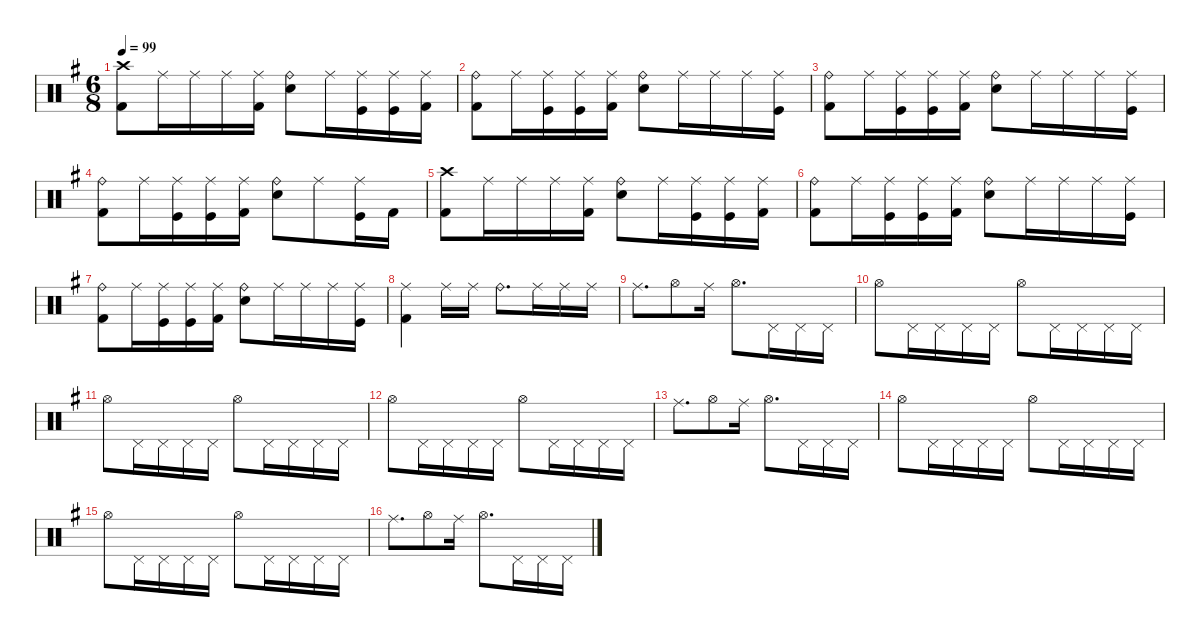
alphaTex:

\defaultSystemsLayout 4
\hideDynamics
\bracketExtendMode nobrackets
\singleTrackTrackNamePolicy hidden
\multiTrackTrackNamePolicy hidden
\otherSystemsTrackNameOrientation horizontal
\track ("Dave Abbruzzese" "drm.") {defaultSystemsLayout 4 instrument percussion}
\staff {score}
\articulation defaults
\ts (6 8)
\tempo 99
\clef neutral
\ks g
("Crash high (hit)"{acc forcenatural} "Kick (hit) 2"{acc forcenatural}).8{dy f beam Down} "Ride (middle)"{acc forcenatural}.16{dy p beam Down} "Ride (middle)"{acc forcenatural}.16{beam Down} "Ride (middle)"{acc forcenatural}.16{beam Down} ("Ride (middle)"{acc forcenatural} "Kick (hit) 2"{acc forcenatural}).16{beam Down} ("Ride (bell)"{acc forcenatural} "Snare (hit) 2"{acc forcenatural}).8{dy f beam Down} "Ride (middle)"{acc forcenatural}.16{dy p beam Down} ("Ride (middle)"{acc forcenatural} "Kick (hit)"{acc forcenatural}).16{beam Down} ("Ride (middle)"{acc forcenatural} "Kick (hit)"{acc forcenatural}).16{beam Down} ("Ride (middle)"{acc forcenatural} "Kick (hit) 2"{acc forcenatural}).16{beam Down} |
("Ride (bell)"{acc forcenatural} "Kick (hit) 2"{acc forcenatural}).8{dy f beam Down} "Ride (middle)"{acc forcenatural}.16{dy p beam Down} ("Ride (middle)"{acc forcenatural} "Kick (hit)"{acc forcenatural}).16{beam Down} ("Ride (middle)"{acc forcenatural} "Kick (hit)"{acc forcenatural}).16{beam Down} ("Ride (middle)"{acc forcenatural} "Kick (hit) 2"{acc forcenatural}).16{beam Down} ("Ride (bell)"{acc forcenatural} "Snare (hit) 2"{acc forcenatural}).8{dy f beam Down} "Ride (middle)"{acc forcenatural}.16{dy p beam Down} "Ride (middle)"{acc forcenatural}.16{beam Down} "Ride (middle)"{acc forcenatural}.16{beam Down} ("Ride (middle)"{acc forcenatural} "Kick (hit)"{acc forcenatural}).16{beam Down} |
("Ride (bell)"{acc forcenatural} "Kick (hit) 2"{acc forcenatural}).8{dy f beam Down} "Ride (middle)"{acc forcenatural}.16{dy p beam Down} ("Ride (middle)"{acc forcenatural} "Kick (hit)"{acc forcenatural}).16{beam Down} ("Ride (middle)"{acc forcenatural} "Kick (hit)"{acc forcenatural}).16{beam Down} ("Ride (middle)"{acc forcenatural} "Kick (hit) 2"{acc forcenatural}).16{beam Down} ("Ride (bell)"{acc forcenatural} "Snare (hit) 2"{acc forcenatural}).8{dy f beam Down} "Ride (middle)"{acc forcenatural}.16{dy p beam Down} "Ride (middle)"{acc forcenatural}.16{beam Down} "Ride (middle)"{acc forcenatural}.16{beam Down} ("Ride (middle)"{acc forcenatural} "Kick (hit)"{acc forcenatural}).16{beam Down} |
("Ride (bell)"{acc forcenatural} "Kick (hit) 2"{acc forcenatural}).8{dy f beam Down} "Ride (middle)"{acc forcenatural}.16{dy p beam Down} ("Ride (middle)"{acc forcenatural} "Kick (hit)"{acc forcenatural}).16{beam Down} ("Ride (middle)"{acc forcenatural} "Kick (hit)"{acc forcenatural}).16{beam Down} ("Ride (middle)"{acc forcenatural} "Kick (hit) 2"{acc forcenatural}).16{beam Down} ("Ride (bell)"{acc forcenatural} "Snare (hit) 2"{acc forcenatural}).8{dy f beam Down} "Ride (middle)"{acc forcenatural}.8{beam Down} ("Ride (middle)"{acc forcenatural} "Kick (hit)"{acc forcenatural}).16{beam Down} "Kick (hit) 2"{acc forcenatural}.16{beam Down} |
("Crash high (hit)"{acc forcenatural} "Kick (hit) 2"{acc forcenatural}).8{beam Down} "Ride (middle)"{acc forcenatural}.16{dy p beam Down} "Ride (middle)"{acc forcenatural}.16{beam Down} "Ride (middle)"{acc forcenatural}.16{beam Down} ("Ride (middle)"{acc forcenatural} "Kick (hit) 2"{acc forcenatural}).16{beam Down} ("Ride (bell)"{acc forcenatural} "Snare (hit) 2"{acc forcenatural}).8{dy f beam Down} "Ride (middle)"{acc forcenatural}.16{dy p beam Down} ("Ride (middle)"{acc forcenatural} "Kick (hit)"{acc forcenatural}).16{beam Down} ("Ride (middle)"{acc forcenatural} "Kick (hit)"{acc forcenatural}).16{beam Down} ("Ride (middle)"{acc forcenatural} "Kick (hit) 2"{acc forcenatural}).16{beam Down} |
("Ride (bell)"{acc forcenatural} "Kick (hit) 2"{acc forcenatural}).8{dy f beam Down} "Ride (middle)"{acc forcenatural}.16{dy p beam Down} ("Ride (middle)"{acc forcenatural} "Kick (hit)"{acc forcenatural}).16{beam Down} ("Ride (middle)"{acc forcenatural} "Kick (hit)"{acc forcenatural}).16{beam Down} ("Ride (middle)"{acc forcenatural} "Kick (hit) 2"{acc forcenatural}).16{beam Down} ("Ride (bell)"{acc forcenatural} "Snare (hit) 2"{acc forcenatural}).8{dy f beam Down} "Ride (middle)"{acc forcenatural}.16{dy p beam Down} "Ride (middle)"{acc forcenatural}.16{beam Down} "Ride (middle)"{acc forcenatural}.16{beam Down} ("Ride (middle)"{acc forcenatural} "Kick (hit)"{acc forcenatural}).16{beam Down} |
("Ride (bell)"{acc forcenatural} "Kick (hit) 2"{acc forcenatural}).8{dy f beam Down} "Ride (middle)"{acc forcenatural}.16{dy p beam Down} ("Ride (middle)"{acc forcenatural} "Kick (hit)"{acc forcenatural}).16{beam Down} ("Ride (middle)"{acc forcenatural} "Kick (hit)"{acc forcenatural}).16{beam Down} ("Ride (middle)"{acc forcenatural} "Kick (hit) 2"{acc forcenatural}).16{beam Down} ("Ride (bell)"{acc forcenatural} "Snare (hit) 2"{acc forcenatural}).8{dy f beam Down} "Ride (middle)"{acc forcenatural}.16{dy p beam Down} "Ride (middle)"{acc forcenatural}.16{beam Down} "Ride (middle)"{acc forcenatural}.16{beam Down} ("Ride (middle)"{acc forcenatural} "Kick (hit)"{acc forcenatural}).16{beam Down} |
("Ride (middle)"{acc forcenatural} "Kick (hit) 2"{acc forcenatural}).4{dy f beam Down} "Ride (middle)"{acc forcenatural}.16{dy mp beam Down} "Ride (middle)"{acc forcenatural}.16{beam Down} "Ride (bell)"{acc forcenatural}.8{d beam Down} "Ride (middle)"{acc forcenatural}.16{beam Down} "Ride (middle)"{acc forcenatural}.16{dy p beam Down} "Ride (middle)"{acc forcenatural}.16{beam Down} |
"Ride (middle)"{acc forcenatural}.8{d beam Down} "Hi-Hat (open)"{acc forcenatural}.8{beam Down} "Ride (middle)"{acc forcenatural}.16{dy mp beam Down} "Hi-Hat (open)"{acc forcenatural}.8{d dy pp beam Down} "Pedal Hi-Hat (hit)"{acc forcenatural}.16{beam Down} "Pedal Hi-Hat (hit)"{acc forcenatural}.16{beam Down} "Pedal Hi-Hat (hit)"{acc forcenatural}.16{beam Down} |
"Hi-Hat (open)"{acc forcenatural}.8{dy p beam Down} "Pedal Hi-Hat (hit)"{acc forcenatural}.16{dy pp beam Down} "Pedal Hi-Hat (hit)"{acc forcenatural}.16{beam Down} "Pedal Hi-Hat (hit)"{acc forcenatural}.16{beam Down} "Pedal Hi-Hat (hit)"{acc forcenatural}.16{beam Down} "Hi-Hat (open)"{acc forcenatural}.8{dy p beam Down} "Pedal Hi-Hat (hit)"{acc forcenatural}.16{dy pp beam Down} "Pedal Hi-Hat (hit)"{acc forcenatural}.16{beam Down} "Pedal Hi-Hat (hit)"{acc forcenatural}.16{beam Down} "Pedal Hi-Hat (hit)"{acc forcenatural}.16{beam Down} |
"Hi-Hat (open)"{acc forcenatural}.8{dy p beam Down} "Pedal Hi-Hat (hit)"{acc forcenatural}.16{dy pp beam Down} "Pedal Hi-Hat (hit)"{acc forcenatural}.16{beam Down} "Pedal Hi-Hat (hit)"{acc forcenatural}.16{beam Down} "Pedal Hi-Hat (hit)"{acc forcenatural}.16{beam Down} "Hi-Hat (open)"{acc forcenatural}.8{dy p beam Down} "Pedal Hi-Hat (hit)"{acc forcenatural}.16{dy pp beam Down} "Pedal Hi-Hat (hit)"{acc forcenatural}.16{beam Down} "Pedal Hi-Hat (hit)"{acc forcenatural}.16{beam Down} "Pedal Hi-Hat (hit)"{acc forcenatural}.16{beam Down} |
"Hi-Hat (open)"{acc forcenatural}.8{dy p beam Down} "Pedal Hi-Hat (hit)"{acc forcenatural}.16{dy pp beam Down} "Pedal Hi-Hat (hit)"{acc forcenatural}.16{beam Down} "Pedal Hi-Hat (hit)"{acc forcenatural}.16{beam Down} "Pedal Hi-Hat (hit)"{acc forcenatural}.16{beam Down} "Hi-Hat (open)"{acc forcenatural}.8{dy p beam Down} "Pedal Hi-Hat (hit)"{acc forcenatural}.16{dy pp beam Down} "Pedal Hi-Hat (hit)"{acc forcenatural}.16{beam Down} "Pedal Hi-Hat (hit)"{acc forcenatural}.16{beam Down} "Pedal Hi-Hat (hit)"{acc forcenatural}.16{beam Down} |
"Ride (middle)"{acc forcenatural}.8{d dy p beam Down} "Hi-Hat (open)"{acc forcenatural}.8{beam Down} "Ride (middle)"{acc forcenatural}.16{dy mp beam Down} "Hi-Hat (open)"{acc forcenatural}.8{d dy pp beam Down} "Pedal Hi-Hat (hit)"{acc forcenatural}.16{beam Down} "Pedal Hi-Hat (hit)"{acc forcenatural}.16{beam Down} "Pedal Hi-Hat (hit)"{acc forcenatural}.16{beam Down} |
"Hi-Hat (open)"{acc forcenatural}.8{dy p beam Down} "Pedal Hi-Hat (hit)"{acc forcenatural}.16{dy pp beam Down} "Pedal Hi-Hat (hit)"{acc forcenatural}.16{beam Down} "Pedal Hi-Hat (hit)"{acc forcenatural}.16{beam Down} "Pedal Hi-Hat (hit)"{acc forcenatural}.16{beam Down} "Hi-Hat (open)"{acc forcenatural}.8{dy p beam Down} "Pedal Hi-Hat (hit)"{acc forcenatural}.16{dy pp beam Down} "Pedal Hi-Hat (hit)"{acc forcenatural}.16{beam Down} "Pedal Hi-Hat (hit)"{acc forcenatural}.16{beam Down} "Pedal Hi-Hat (hit)"{acc forcenatural}.16{beam Down} |
"Hi-Hat (open)"{acc forcenatural}.8{dy p beam Down} "Pedal Hi-Hat (hit)"{acc forcenatural}.16{dy pp beam Down} "Pedal Hi-Hat (hit)"{acc forcenatural}.16{beam Down} "Pedal Hi-Hat (hit)"{acc forcenatural}.16{beam Down} "Pedal Hi-Hat (hit)"{acc forcenatural}.16{beam Down} "Hi-Hat (open)"{acc forcenatural}.8{dy p beam Down} "Pedal Hi-Hat (hit)"{acc forcenatural}.16{dy pp beam Down} "Pedal Hi-Hat (hit)"{acc forcenatural}.16{beam Down} "Pedal Hi-Hat (hit)"{acc forcenatural}.16{beam Down} "Pedal Hi-Hat (hit)"{acc forcenatural}.16{beam Down} |
"Ride (middle)"{acc forcenatural}.8{d dy p beam Down} "Hi-Hat (open)"{acc forcenatural}.8{beam Down} "Ride (middle)"{acc forcenatural}.16{dy mp beam Down} "Hi-Hat (open)"{acc forcenatural}.8{d dy pp beam Down} "Pedal Hi-Hat (hit)"{acc forcenatural}.16{beam Down} "Pedal Hi-Hat (hit)"{acc forcenatural}.16{beam Down} "Pedal Hi-Hat (hit)"{acc forcenatural}.16{beam Down}
